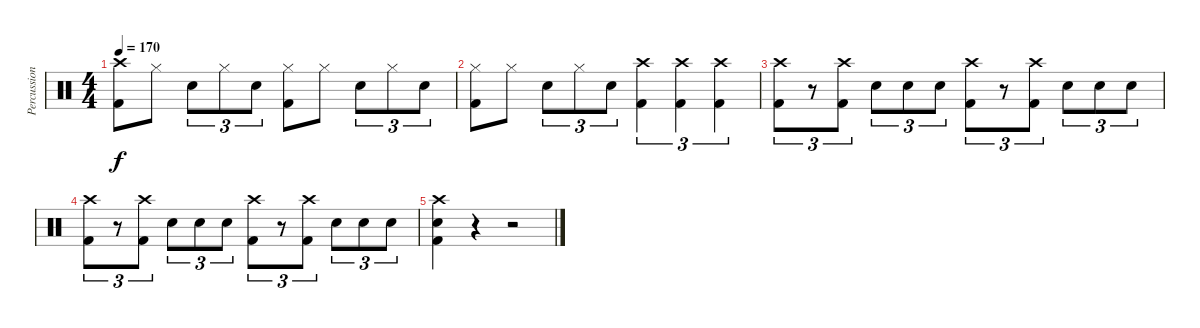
\track ("Percussion" "Percussion") {instrument percussion}
\staff {score}
\articulation defaults
\ts (4 4)
\tempo 170
\clef neutral
\ks c
("Crash high (hit)" "Kick (hit) 2").8{dy f} "Hi-Hat (closed)".8 "Snare (hit) 2".8{tu (3 2)} "Hi-Hat (closed)".8{tu (3 2)} "Snare (hit) 2".8{tu (3 2)} ("Hi-Hat (closed)" "Kick (hit) 2").8 "Hi-Hat (closed)".8 "Snare (hit) 2".8{tu (3 2)} "Hi-Hat (closed)".8{tu (3 2)} "Snare (hit) 2".8{tu (3 2)} |
("Hi-Hat (closed)" "Kick (hit) 2").8 "Hi-Hat (closed)".8 "Snare (hit) 2".8{tu (3 2)} "Hi-Hat (closed)".8{tu (3 2)} "Snare (hit) 2".8{tu (3 2)} ("Crash high (hit)" "Kick (hit) 2").4{tu (3 2)} ("Crash high (hit)" "Kick (hit) 2").4{tu (3 2)} ("Crash high (hit)" "Kick (hit) 2").4{tu (3 2)} |
("Crash high (hit)" "Kick (hit) 2").8{tu (3 2)} r.8{tu (3 2)} ("Crash high (hit)" "Kick (hit) 2").8{tu (3 2)} "Snare (hit) 2".8{tu (3 2)} "Snare (hit) 2".8{tu (3 2)} "Snare (hit) 2".8{tu (3 2)} ("Crash high (hit)" "Kick (hit) 2").8{tu (3 2)} r.8{tu (3 2)} ("Crash high (hit)" "Kick (hit) 2").8{tu (3 2)} "Snare (hit) 2".8{tu (3 2)} "Snare (hit) 2".8{tu (3 2)} "Snare (hit) 2".8{tu (3 2)} |
("Crash high (hit)" "Kick (hit) 2").8{tu (3 2)} r.8{tu (3 2)} ("Crash high (hit)" "Kick (hit) 2").8{tu (3 2)} "Snare (hit) 2".8{tu (3 2)} "Snare (hit) 2".8{tu (3 2)} "Snare (hit) 2".8{tu (3 2)} ("Crash high (hit)" "Kick (hit) 2").8{tu (3 2)} r.8{tu (3 2)} ("Crash high (hit)" "Kick (hit) 2").8{tu (3 2)} "Snare (hit) 2".8{tu (3 2)} "Snare (hit) 2".8{tu (3 2)} "Snare (hit) 2".8{tu (3 2)} |
("Crash high (hit)" "Snare (hit) 2" "Kick (hit) 2").4 r.4 r.2
